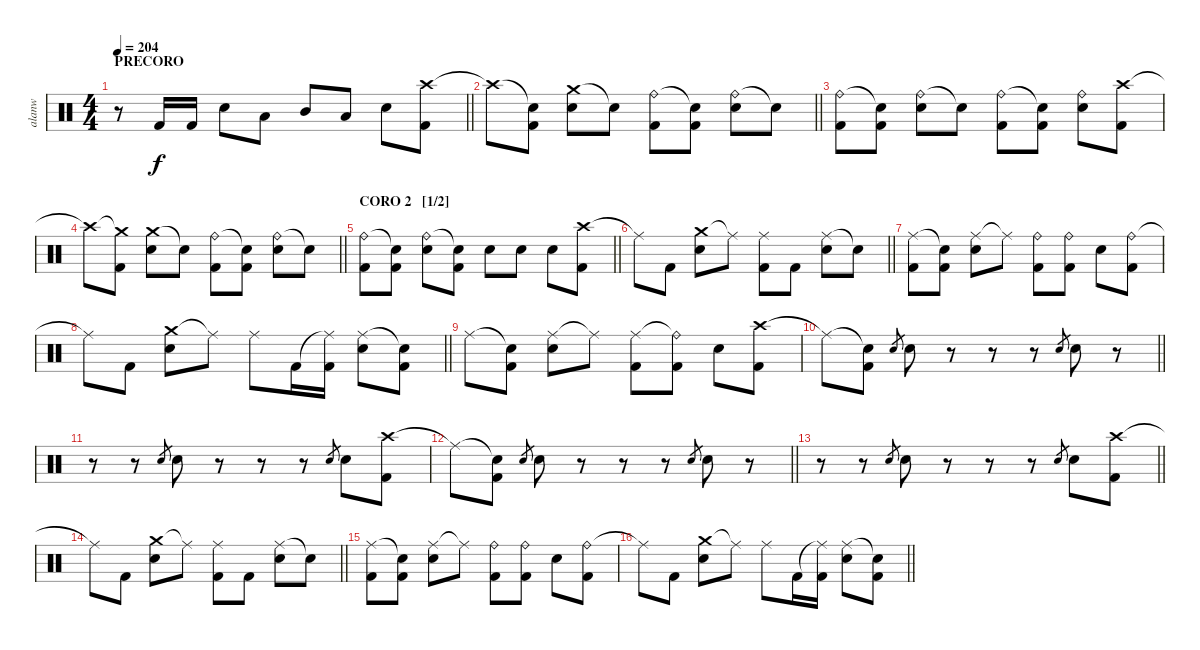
\track ("alanw" "alanw") {instrument percussion}
\staff {score}
\articulation defaults
\ts (4 4)
\section ("" "PRECORO")
\tempo 204
\clef neutral
\barLineRight lightlight
\ks c
r.8{dy f} "Kick (hit) 2".16 "Kick (hit) 2".16 "Electric Snare (hit)".8 "Low Tom (hit)".8 "Mid Tom (hit)".8 "Low Tom (hit)".8 "Electric Snare (hit)".8 ("Crash high (hit)" "Kick (hit) 2").8 |
\barLineRight lightlight "Crash high (hit)"{t}.8
("Snare (hit)"{t} "Kick (hit) 2").8 ("Crash medium (hit)" "Electric Snare (hit)").8 "Snare (hit)"{t}.8 ("Ride (bell)" "Kick (hit) 2").8 ("Snare (hit)"{t} "Kick (hit) 2").8 ("Ride (bell)" "Electric Snare (hit)").8 "Snare (hit)"{t}.8 |
("Ride (bell)" "Kick (hit) 2").8 ("Snare (hit)"{t} "Kick (hit) 2").8 ("Ride (bell)" "Electric Snare (hit)").8 "Snare (hit)"{t}.8 ("Ride (bell)" "Kick (hit) 2").8 ("Snare (hit)"{t} "Kick (hit) 2").8 ("Ride (bell)" "Electric Snare (hit)").8 ("Crash high (hit)" "Kick (hit) 2").8 |
\barLineRight lightlight "Crash high (hit)"{t}.8
("Crash medium (hit)"{t} "Kick (hit) 2").8 ("Crash medium (hit)" "Electric Snare (hit)").8 "Snare (hit)"{t}.8 ("Ride (bell)" "Kick (hit) 2").8 ("Snare (hit)"{t} "Kick (hit) 2").8 ("Ride (bell)" "Electric Snare (hit)").8 "Snare (hit)"{t}.8 |
\section ("" "CORO 2   [1/2]")
\barLineRight lightlight
("Ride (bell)" "Kick (hit) 2").8 ("Snare (hit)"{t} "Kick (hit) 2").8 ("Ride (bell)" "Electric Snare (hit)").8 ("Snare (hit)"{t} "Kick (hit) 2").8 "Electric Snare (hit)".8 "Electric Snare (hit)".8 "Electric Snare (hit)".8 ("Crash high (hit)" "Kick (hit) 2").8 |
\barLineRight lightlight "Ride (middle)"{t}.8 "Kick (hit) 2".8
("Crash medium (hit)" "Electric Snare (hit)").8 "Ride (middle)"{t}.8 ("Ride (middle)" "Kick (hit) 2").8 "Kick (hit) 2".8 ("Ride (middle)" "Electric Snare (hit)").8 "Snare (hit)"{t}.8 |
("Ride (middle)" "Kick (hit) 2").8 ("Snare (hit)"{t} "Kick (hit) 2").8 ("Ride (middle)" "Electric Snare (hit)").8 "Ride (middle)"{t}.8 ("Ride (bell)" "Kick (hit) 2").8 ("Ride (bell)" "Kick (hit) 2").8 "Electric Snare (hit)".8 ("Ride (bell)" "Kick (hit) 2").8 |
\barLineRight lightlight "Ride (middle)"{t}.8 "Kick (hit) 2".8
("Crash medium (hit)" "Electric Snare (hit)").8 "Ride (middle)"{t}.8 "Ride (middle)".8 "Kick (hit) 2".16 ("Ride (middle)"{t} "Kick (hit) 2").16 ("Ride (middle)" "Electric Snare (hit)").8 ("Snare (hit)"{t} "Kick (hit) 2").8 |
"Ride (middle)".8 ("Snare (hit)"{t} "Kick (hit) 2").8 ("Ride (middle)" "Electric Snare (hit)").8 "Ride (middle)"{t}.8 ("Ride (middle)" "Kick (hit) 2").8 ("Ride (bell)"{t} "Kick (hit) 2").8 "Electric Snare (hit)".8 ("Crash high (hit)" "Kick (hit) 2").8 |
\barLineRight lightlight "Ride (middle)"{t}.8
("Snare (hit)"{t} "Kick (hit) 2").8 "Electric Snare (hit)".8{gr} "Electric Snare (hit)".8 r.8 r.8 r.8 "Electric Snare (hit)".8{gr} "Electric Snare (hit)".8 r.8 |
r.8 r.8 "Electric Snare (hit)".8{gr} "Electric Snare (hit)".8 r.8 r.8 r.8 "Electric Snare (hit)".8{gr} "Electric Snare (hit)".8 ("Crash high (hit)" "Kick (hit) 2").8 |
\barLineRight lightlight "Ride (middle)"{t}.8
("Snare (hit)"{t} "Kick (hit) 2").8 "Electric Snare (hit)".8{gr} "Electric Snare (hit)".8 r.8 r.8 r.8 "Electric Snare (hit)".8{gr} "Electric Snare (hit)".8 r.8 |
\section ("" "")
\barLineRight lightlight
r.8 r.8 "Electric Snare (hit)".8{gr} "Electric Snare (hit)".8 r.8 r.8 r.8 "Electric Snare (hit)".8{gr} "Electric Snare (hit)".8 ("Crash high (hit)" "Kick (hit) 2").8 |
\barLineRight lightlight "Ride (middle)"{t}.8 "Kick (hit) 2".8
("Crash medium (hit)" "Electric Snare (hit)").8 "Ride (middle)"{t}.8 ("Ride (middle)" "Kick (hit) 2").8 "Kick (hit) 2".8 ("Ride (middle)" "Electric Snare (hit)").8 "Snare (hit)"{t}.8 |
("Ride (middle)" "Kick (hit) 2").8 ("Snare (hit)"{t} "Kick (hit) 2").8 ("Ride (middle)" "Electric Snare (hit)").8 "Ride (middle)"{t}.8 ("Ride (bell)" "Kick (hit) 2").8 ("Ride (bell)" "Kick (hit) 2").8 "Electric Snare (hit)".8 ("Ride (bell)" "Kick (hit) 2").8 |
\barLineRight lightlight "Ride (middle)"{t}.8 "Kick (hit) 2".8
("Crash medium (hit)" "Electric Snare (hit)").8 "Ride (middle)"{t}.8 "Ride (middle)".8 "Kick (hit) 2".16 ("Ride (middle)"{t} "Kick (hit) 2").16 ("Ride (middle)" "Electric Snare (hit)").8 ("Snare (hit)"{t} "Kick (hit) 2").8
